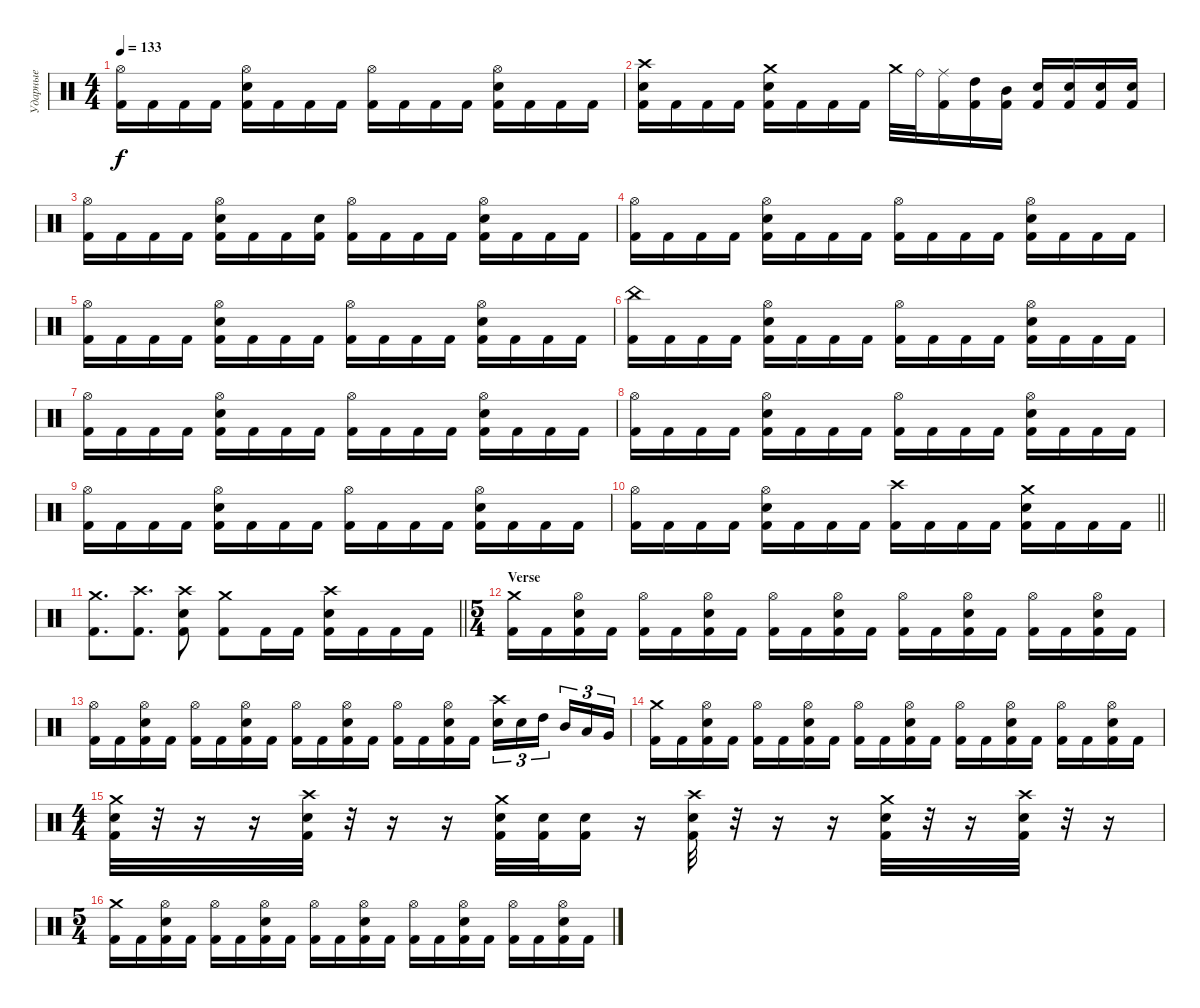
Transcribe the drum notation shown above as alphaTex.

\track ("Ударные" "Ударные") {instrument percussion}
\staff {score}
\articulation defaults
\ts (4 4)
\tempo 133
\clef neutral
\ks c
("Hi-Hat (open)" "Kick (hit) 2").16{dy f} "Kick (hit) 2".16 "Kick (hit) 2".16 "Kick (hit) 2".16 ("Hi-Hat (open)" "Snare (hit) 2" "Kick (hit) 2").16 "Kick (hit) 2".16 "Kick (hit) 2".16 "Kick (hit) 2".16 ("Hi-Hat (open)" "Kick (hit) 2").16 "Kick (hit) 2".16 "Kick (hit) 2".16 "Kick (hit) 2".16 ("Hi-Hat (open)" "Snare (hit) 2" "Kick (hit) 2").16 "Kick (hit) 2".16 "Kick (hit) 2".16 "Kick (hit) 2".16 |
("Crash high (hit)" "Snare (hit) 2" "Kick (hit) 2").16 "Kick (hit) 2".16 "Kick (hit) 2".16 "Kick (hit) 2".16 ("Crash medium (hit)" "Snare (hit) 2" "Kick (hit) 2").16 "Kick (hit) 2".16 "Kick (hit) 2".16 "Kick (hit) 2".16 "Crash medium (hit)".32 "Ride (bell)".32 ("Ride (middle)" "Kick (hit) 2").16 ("High Tom (hit)" "Kick (hit) 2").16 ("Mid Tom (hit)" "Kick (hit) 2").16 ("Snare (hit) 2" "Kick (hit) 2").16 ("Snare (hit) 2" "Kick (hit) 2").16 ("Snare (hit) 2" "Kick (hit) 2").16 ("Snare (hit) 2" "Kick (hit) 2").16 |
("Hi-Hat (open)" "Kick (hit) 2").16 "Kick (hit) 2".16 "Kick (hit) 2".16 "Kick (hit) 2".16 ("Hi-Hat (open)" "Snare (hit) 2" "Kick (hit) 2").16 "Kick (hit) 2".16 "Kick (hit) 2".16 ("Snare (hit) 2" "Kick (hit) 2").16 ("Hi-Hat (open)" "Kick (hit) 2").16 "Kick (hit) 2".16 "Kick (hit) 2".16 "Kick (hit) 2".16 ("Hi-Hat (open)" "Snare (hit) 2" "Kick (hit) 2").16 "Kick (hit) 2".16 "Kick (hit) 2".16 "Kick (hit) 2".16 |
("Hi-Hat (open)" "Kick (hit) 2").16 "Kick (hit) 2".16 "Kick (hit) 2".16 "Kick (hit) 2".16 ("Hi-Hat (open)" "Snare (hit) 2" "Kick (hit) 2").16 "Kick (hit) 2".16 "Kick (hit) 2".16 "Kick (hit) 2".16 ("Hi-Hat (open)" "Kick (hit) 2").16 "Kick (hit) 2".16 "Kick (hit) 2".16 "Kick (hit) 2".16 ("Hi-Hat (open)" "Snare (hit) 2" "Kick (hit) 2").16 "Kick (hit) 2".16 "Kick (hit) 2".16 "Kick (hit) 2".16 |
("Hi-Hat (open)" "Kick (hit) 2").16 "Kick (hit) 2".16 "Kick (hit) 2".16 "Kick (hit) 2".16 ("Hi-Hat (open)" "Snare (hit) 2" "Kick (hit) 2").16 "Kick (hit) 2".16 "Kick (hit) 2".16 "Kick (hit) 2".16 ("Hi-Hat (open)" "Kick (hit) 2").16 "Kick (hit) 2".16 "Kick (hit) 2".16 "Kick (hit) 2".16 ("Hi-Hat (open)" "Snare (hit) 2" "Kick (hit) 2").16 "Kick (hit) 2".16 "Kick (hit) 2".16 "Kick (hit) 2".16 |
("China (hit)" "Kick (hit) 2").16 "Kick (hit) 2".16 "Kick (hit) 2".16 "Kick (hit) 2".16 ("Hi-Hat (open)" "Snare (hit) 2" "Kick (hit) 2").16 "Kick (hit) 2".16 "Kick (hit) 2".16 "Kick (hit) 2".16 ("Hi-Hat (open)" "Kick (hit) 2").16 "Kick (hit) 2".16 "Kick (hit) 2".16 "Kick (hit) 2".16 ("Hi-Hat (open)" "Snare (hit) 2" "Kick (hit) 2").16 "Kick (hit) 2".16 "Kick (hit) 2".16 "Kick (hit) 2".16 |
("Hi-Hat (open)" "Kick (hit) 2").16 "Kick (hit) 2".16 "Kick (hit) 2".16 "Kick (hit) 2".16 ("Hi-Hat (open)" "Snare (hit) 2" "Kick (hit) 2").16 "Kick (hit) 2".16 "Kick (hit) 2".16 "Kick (hit) 2".16 ("Hi-Hat (open)" "Kick (hit) 2").16 "Kick (hit) 2".16 "Kick (hit) 2".16 "Kick (hit) 2".16 ("Hi-Hat (open)" "Snare (hit) 2" "Kick (hit) 2").16 "Kick (hit) 2".16 "Kick (hit) 2".16 "Kick (hit) 2".16 |
("Hi-Hat (open)" "Kick (hit) 2").16 "Kick (hit) 2".16 "Kick (hit) 2".16 "Kick (hit) 2".16 ("Hi-Hat (open)" "Snare (hit) 2" "Kick (hit) 2").16 "Kick (hit) 2".16 "Kick (hit) 2".16 "Kick (hit) 2".16 ("Hi-Hat (open)" "Kick (hit) 2").16 "Kick (hit) 2".16 "Kick (hit) 2".16 "Kick (hit) 2".16 ("Hi-Hat (open)" "Snare (hit) 2" "Kick (hit) 2").16 "Kick (hit) 2".16 "Kick (hit) 2".16 "Kick (hit) 2".16 |
("Hi-Hat (open)" "Kick (hit) 2").16 "Kick (hit) 2".16 "Kick (hit) 2".16 "Kick (hit) 2".16 ("Hi-Hat (open)" "Snare (hit) 2" "Kick (hit) 2").16 "Kick (hit) 2".16 "Kick (hit) 2".16 "Kick (hit) 2".16 ("Hi-Hat (open)" "Kick (hit) 2").16 "Kick (hit) 2".16 "Kick (hit) 2".16 "Kick (hit) 2".16 ("Hi-Hat (open)" "Snare (hit) 2" "Kick (hit) 2").16 "Kick (hit) 2".16 "Kick (hit) 2".16 "Kick (hit) 2".16 |
\barLineRight lightlight
("Hi-Hat (open)" "Kick (hit) 2").16 "Kick (hit) 2".16 "Kick (hit) 2".16 "Kick (hit) 2".16 ("Hi-Hat (open)" "Snare (hit) 2" "Kick (hit) 2").16 "Kick (hit) 2".16 "Kick (hit) 2".16 "Kick (hit) 2".16 ("Crash high (hit)" "Kick (hit) 2").16 "Kick (hit) 2".16 "Kick (hit) 2".16 "Kick (hit) 2".16 ("Crash medium (hit)" "Snare (hit) 2" "Kick (hit) 2").16 "Kick (hit) 2".16 "Kick (hit) 2".16 "Kick (hit) 2".16 |
\barLineRight lightlight
("Crash medium (hit)" "Kick (hit) 2").8{d} ("Crash high (hit)" "Kick (hit) 2").8{d} ("Crash high (hit)" "Snare (hit) 2" "Kick (hit) 2").8 ("Crash medium (hit)" "Kick (hit) 2").8 "Kick (hit) 2".16 "Kick (hit) 2".16 ("Crash high (hit)" "Snare (hit) 2" "Kick (hit) 2").16 "Kick (hit) 2".16 "Kick (hit) 2".16 "Kick (hit) 2".16 |
\ts (5 4)
\section ("" "Verse")
("Crash medium (hit)" "Kick (hit) 2").16 "Kick (hit) 2".16 ("Hi-Hat (open)" "Snare (hit) 2" "Kick (hit) 2").16 "Kick (hit) 2".16 ("Hi-Hat (open)" "Kick (hit) 2").16 "Kick (hit) 2".16 ("Hi-Hat (open)" "Snare (hit) 2" "Kick (hit) 2").16 "Kick (hit) 2".16 ("Hi-Hat (open)" "Kick (hit) 2").16 "Kick (hit) 2".16 ("Hi-Hat (open)" "Snare (hit) 2" "Kick (hit) 2").16 "Kick (hit) 2".16 ("Hi-Hat (open)" "Kick (hit) 2").16 "Kick (hit) 2".16 ("Hi-Hat (open)" "Snare (hit) 2" "Kick (hit) 2").16 "Kick (hit) 2".16 ("Hi-Hat (open)" "Kick (hit) 2").16 "Kick (hit) 2".16 ("Hi-Hat (open)" "Snare (hit) 2" "Kick (hit) 2").16 "Kick (hit) 2".16 |
("Hi-Hat (open)" "Kick (hit) 2").16 "Kick (hit) 2".16 ("Hi-Hat (open)" "Snare (hit) 2" "Kick (hit) 2").16 "Kick (hit) 2".16 ("Hi-Hat (open)" "Kick (hit) 2").16 "Kick (hit) 2".16 ("Hi-Hat (open)" "Snare (hit) 2" "Kick (hit) 2").16 "Kick (hit) 2".16 ("Hi-Hat (open)" "Kick (hit) 2").16 "Kick (hit) 2".16 ("Hi-Hat (open)" "Snare (hit) 2" "Kick (hit) 2").16 "Kick (hit) 2".16 ("Hi-Hat (open)" "Kick (hit) 2").16 "Kick (hit) 2".16 ("Hi-Hat (open)" "Snare (hit) 2" "Kick (hit) 2").16 "Kick (hit) 2".16 ("Crash high (hit)" "Snare (hit) 2").16{tu (3 2)} "Snare (hit) 2".16{tu (3 2)} "High Tom (hit)".16{tu (3 2) beam splitsecondary} "Mid Tom (hit)".16{tu (3 2)} "Low Tom (hit)".16{tu (3 2)} "Very Low Tom (hit)".16{tu (3 2)} |
("Crash medium (hit)" "Kick (hit) 2").16 "Kick (hit) 2".16 ("Hi-Hat (open)" "Snare (hit) 2" "Kick (hit) 2").16 "Kick (hit) 2".16 ("Hi-Hat (open)" "Kick (hit) 2").16 "Kick (hit) 2".16 ("Hi-Hat (open)" "Snare (hit) 2" "Kick (hit) 2").16 "Kick (hit) 2".16 ("Hi-Hat (open)" "Kick (hit) 2").16 "Kick (hit) 2".16 ("Hi-Hat (open)" "Snare (hit) 2" "Kick (hit) 2").16 "Kick (hit) 2".16 ("Hi-Hat (open)" "Kick (hit) 2").16 "Kick (hit) 2".16 ("Hi-Hat (open)" "Snare (hit) 2" "Kick (hit) 2").16 "Kick (hit) 2".16 ("Hi-Hat (open)" "Kick (hit) 2").16 "Kick (hit) 2".16 ("Hi-Hat (open)" "Snare (hit) 2" "Kick (hit) 2").16 "Kick (hit) 2".16 |
\ts (4 4)
("Crash medium (hit)" "Snare (hit) 2" "Kick (hit) 2").32 r.32 r.16 r.16 ("Crash high (hit)" "Snare (hit) 2" "Kick (hit) 2").32 r.32 r.16 r.16 ("Crash medium (hit)" "Snare (hit) 2" "Kick (hit) 2").32 ("Snare (hit) 2" "Kick (hit) 2").32 ("Snare (hit) 2" "Kick (hit) 2").16 r.16 ("Crash high (hit)" "Snare (hit) 2" "Kick (hit) 2").32 r.32 r.16 r.16 ("Crash medium (hit)" "Snare (hit) 2" "Kick (hit) 2").32 r.32 r.16 ("Crash high (hit)" "Snare (hit) 2" "Kick (hit) 2").32 r.32 r.16 |
\ts (5 4)
("Crash medium (hit)" "Kick (hit) 2").16 "Kick (hit) 2".16 ("Hi-Hat (open)" "Snare (hit) 2" "Kick (hit) 2").16 "Kick (hit) 2".16 ("Hi-Hat (open)" "Kick (hit) 2").16 "Kick (hit) 2".16 ("Hi-Hat (open)" "Snare (hit) 2" "Kick (hit) 2").16 "Kick (hit) 2".16 ("Hi-Hat (open)" "Kick (hit) 2").16 "Kick (hit) 2".16 ("Hi-Hat (open)" "Snare (hit) 2" "Kick (hit) 2").16 "Kick (hit) 2".16 ("Hi-Hat (open)" "Kick (hit) 2").16 "Kick (hit) 2".16 ("Hi-Hat (open)" "Snare (hit) 2" "Kick (hit) 2").16 "Kick (hit) 2".16 ("Hi-Hat (open)" "Kick (hit) 2").16 "Kick (hit) 2".16 ("Hi-Hat (open)" "Snare (hit) 2" "Kick (hit) 2").16 "Kick (hit) 2".16
